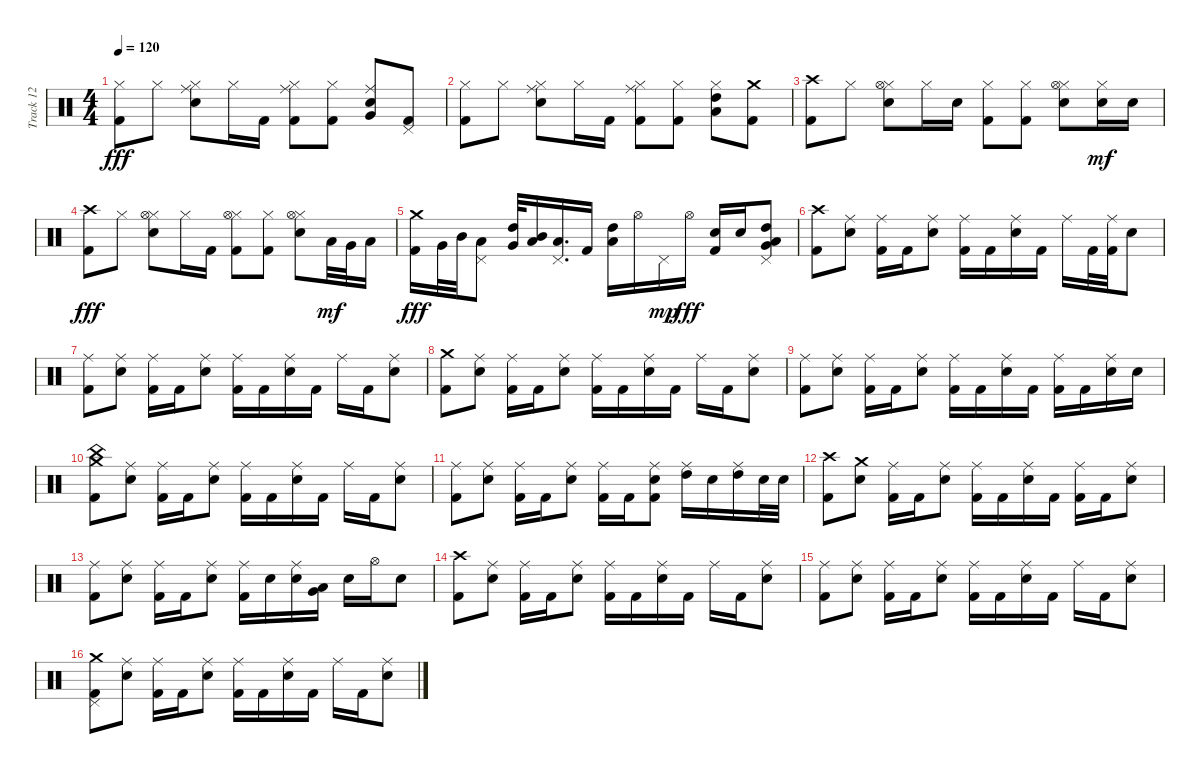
\track ("Track 12" "Track 12") {instrument percussion}
\staff {score}
\articulation defaults
\ts (4 4)
\tempo 120
\clef neutral
\ks c
("Hi-Hat (closed)" "Kick (hit) 2").8{dy fff} "Hi-Hat (closed)".8 ("Hi-Hat (closed)" "Ride (middle)" "Electric Snare (hit)").8 "Hi-Hat (closed)".16 "Kick (hit) 2".16 ("Hi-Hat (closed)" "Ride (middle)" "Kick (hit) 2").8 ("Hi-Hat (closed)" "Kick (hit) 2").8 ("Ride (middle)" "Very Low Tom (hit)" "Snare (hit) 2").8 ("Pedal Hi-Hat (hit)" "Kick (hit) 2").8 |
("Hi-Hat (closed)" "Kick (hit) 2").8 "Hi-Hat (closed)".8 ("Hi-Hat (closed)" "Ride (middle)" "Snare (hit) 2").8 "Hi-Hat (closed)".16 "Kick (hit) 2".16 ("Hi-Hat (closed)" "Ride (middle)" "Kick (hit) 2").8 ("Hi-Hat (closed)" "Kick (hit) 2").8 ("Hi-Hat (closed)" "High Tom (hit)" "Low Tom (hit)").8 ("Crash medium (hit)" "Kick (hit) 2").8 |
("Crash high (hit)" "Kick (hit) 2").8 "Hi-Hat (closed)".8 ("Hi-Hat (closed)" "Hi-Hat (open)" "Snare (hit) 2").8 "Hi-Hat (closed)".16 "Snare (hit) 2".16 ("Hi-Hat (closed)" "Kick (hit) 2").8 ("Hi-Hat (closed)" "Kick (hit) 2").8 ("Hi-Hat (closed)" "Hi-Hat (open)" "Snare (hit) 2").8 ("Hi-Hat (closed)" "Snare (hit) 2").16{dy mf} "Snare (hit) 2".16 |
("Crash high (hit)" "Kick (hit) 2").8{dy fff} "Hi-Hat (closed)".8 ("Hi-Hat (closed)" "Hi-Hat (open)" "Snare (hit) 2").8 "Hi-Hat (closed)".16 "Kick (hit) 2".16 ("Hi-Hat (closed)" "Hi-Hat (open)" "Kick (hit) 2").8 ("Hi-Hat (closed)" "Kick (hit) 2").8 ("Hi-Hat (closed)" "Hi-Hat (open)" "Electric Snare (hit)").8 "Low Tom (hit)".32{dy mf} "Very Low Tom (hit)".32 "Low Floor Tom (hit)".16 |
("Crash medium (hit)" "Kick (hit) 2").16{dy fff} "Very Low Tom (hit)".32 "Mid Tom (hit)".32 ("Pedal Hi-Hat (hit)" "Low Floor Tom (hit)").8 ("High Tom (hit)" "Very Low Tom (hit)").32 ("Mid Tom (hit)" "Low Floor Tom (hit)").16 ("Pedal Hi-Hat (hit)" "Low Tom (hit)").16{d} "Kick (hit) 2".16 ("High Tom (hit)" "Low Floor Tom (hit)").16 "Hi-Hat (open)".16 "Pedal Hi-Hat (hit)".16{dy mp} "Hi-Hat (open)".16{dy fff} ("Snare (hit) 2" "Kick (hit) 2").16 "Electric Snare (hit)".16 ("Pedal Hi-Hat (hit)" "High Tom (hit)" "Very Low Tom (hit)" "Low Floor Tom (hit)").8 |
("Crash high (hit)" "Kick (hit) 2").8 ("Ride (middle)" "Snare (hit) 2").8 ("Ride (middle)" "Kick (hit) 2").16 "Kick (hit) 2".16 ("Ride (middle)" "Snare (hit) 2").8 ("Ride (middle)" "Kick (hit) 2").16 "Kick (hit) 2".16 ("Ride (middle)" "Snare (hit) 2").16 "Kick (hit) 2".16 "Ride (middle)".16 "Kick (hit) 2".32 ("Ride (middle)" "Kick (hit) 2").32 "Snare (hit) 2".8 |
("Ride (middle)" "Kick (hit) 2").8 ("Ride (middle)" "Snare (hit) 2").8 ("Ride (middle)" "Kick (hit) 2").16 "Kick (hit) 2".16 ("Ride (middle)" "Snare (hit) 2").8 ("Ride (middle)" "Kick (hit) 2").16 "Kick (hit) 2".16 ("Ride (middle)" "Snare (hit) 2").16 "Kick (hit) 2".16 "Ride (middle)".16 "Kick (hit) 2".16 ("Ride (middle)" "Snare (hit) 2").8 |
("Crash medium (hit)" "Kick (hit) 2").8 ("Ride (middle)" "Snare (hit) 2").8 ("Ride (middle)" "Kick (hit) 2").16 "Kick (hit) 2".16 ("Ride (middle)" "Snare (hit) 2").8 ("Ride (middle)" "Kick (hit) 2").16 "Kick (hit) 2".16 ("Ride (middle)" "Snare (hit) 2").16 "Kick (hit) 2".16 "Ride (middle)".16 "Kick (hit) 2".16 ("Ride (middle)" "Snare (hit) 2").8 |
("Ride (middle)" "Kick (hit) 2").8 ("Ride (middle)" "Snare (hit) 2").8 ("Ride (middle)" "Kick (hit) 2").16 "Kick (hit) 2".16 ("Ride (middle)" "Snare (hit) 2").8 ("Ride (middle)" "Kick (hit) 2").16 "Kick (hit) 2".16 ("Ride (middle)" "Snare (hit) 2").16 "Kick (hit) 2".16 ("Ride (middle)" "Kick (hit) 2").16 "Kick (hit) 2".16 ("Ride (middle)" "Snare (hit) 2").16 "Snare (hit) 2".16 |
("Crash medium (hit)" "China (hit)" "Kick (hit) 2").8 ("Ride (middle)" "Snare (hit) 2").8 ("Ride (middle)" "Kick (hit) 2").16 "Kick (hit) 2".16 ("Ride (middle)" "Snare (hit) 2").8 ("Ride (middle)" "Kick (hit) 2").16 "Kick (hit) 2".16 ("Ride (middle)" "Snare (hit) 2").16 "Kick (hit) 2".16 "Ride (middle)".16 "Kick (hit) 2".16 ("Ride (middle)" "Snare (hit) 2").8 |
("Ride (middle)" "Kick (hit) 2").8 ("Ride (middle)" "Snare (hit) 2").8 ("Ride (middle)" "Kick (hit) 2").16 "Kick (hit) 2".16 ("Ride (middle)" "Snare (hit) 2").8 ("Ride (middle)" "Kick (hit) 2").16 "Kick (hit) 2".16 ("Ride (middle)" "Electric Snare (hit)" "Kick (hit) 2").8 ("Ride (middle)" "High Tom (hit)").16 "Snare (hit) 2".16 ("Ride (middle)" "High Tom (hit)").16 "Snare (hit) 2".32 "Snare (hit) 2".32 |
("Crash high (hit)" "Kick (hit) 2").8 ("Crash medium (hit)" "Snare (hit) 2").8 ("Ride (middle)" "Kick (hit) 2").16 "Kick (hit) 2".16 ("Ride (middle)" "Snare (hit) 2").8 ("Ride (middle)" "Kick (hit) 2").16 "Kick (hit) 2".16 ("Ride (middle)" "Snare (hit) 2").16 "Kick (hit) 2".16 ("Ride (middle)" "Kick (hit) 2").16 "Kick (hit) 2".16 ("Ride (middle)" "Electric Snare (hit)").8 |
("Ride (middle)" "Kick (hit) 2").8 ("Ride (middle)" "Snare (hit) 2").8 ("Ride (middle)" "Kick (hit) 2").16 "Kick (hit) 2".16 ("Ride (middle)" "Snare (hit) 2").8 ("Ride (middle)" "Kick (hit) 2").16 "Electric Snare (hit)".16 ("Ride (middle)" "Snare (hit) 2").16 ("Low Tom (hit)" "Very Low Tom (hit)").16 "Snare (hit) 2".16 "Hi-Hat (open)".16 "Electric Snare (hit)".8 |
("Crash high (hit)" "Kick (hit) 2").8 ("Ride (middle)" "Snare (hit) 2").8 ("Ride (middle)" "Kick (hit) 2").16 "Kick (hit) 2".16 ("Ride (middle)" "Snare (hit) 2").8 ("Ride (middle)" "Kick (hit) 2").16 "Kick (hit) 2".16 ("Ride (middle)" "Snare (hit) 2").16 "Kick (hit) 2".16 "Ride (middle)".16 "Kick (hit) 2".16 ("Ride (middle)" "Snare (hit) 2").8 |
("Ride (middle)" "Kick (hit) 2").8 ("Ride (middle)" "Snare (hit) 2").8 ("Ride (middle)" "Kick (hit) 2").16 "Kick (hit) 2".16 ("Ride (middle)" "Snare (hit) 2").8 ("Ride (middle)" "Kick (hit) 2").16 "Kick (hit) 2".16 ("Ride (middle)" "Snare (hit) 2").16 "Kick (hit) 2".16 "Ride (middle)".16 "Kick (hit) 2".16 ("Ride (middle)" "Snare (hit) 2").8 |
("Crash medium (hit)" "Pedal Hi-Hat (hit)" "Kick (hit) 2").8 ("Ride (middle)" "Snare (hit) 2").8 ("Ride (middle)" "Kick (hit) 2").16 "Kick (hit) 2".16 ("Ride (middle)" "Snare (hit) 2").8 ("Ride (middle)" "Kick (hit) 2").16 "Kick (hit) 2".16 ("Ride (middle)" "Snare (hit) 2").16 "Kick (hit) 2".16 "Ride (middle)".16 "Kick (hit) 2".16 ("Ride (middle)" "Snare (hit) 2").8
